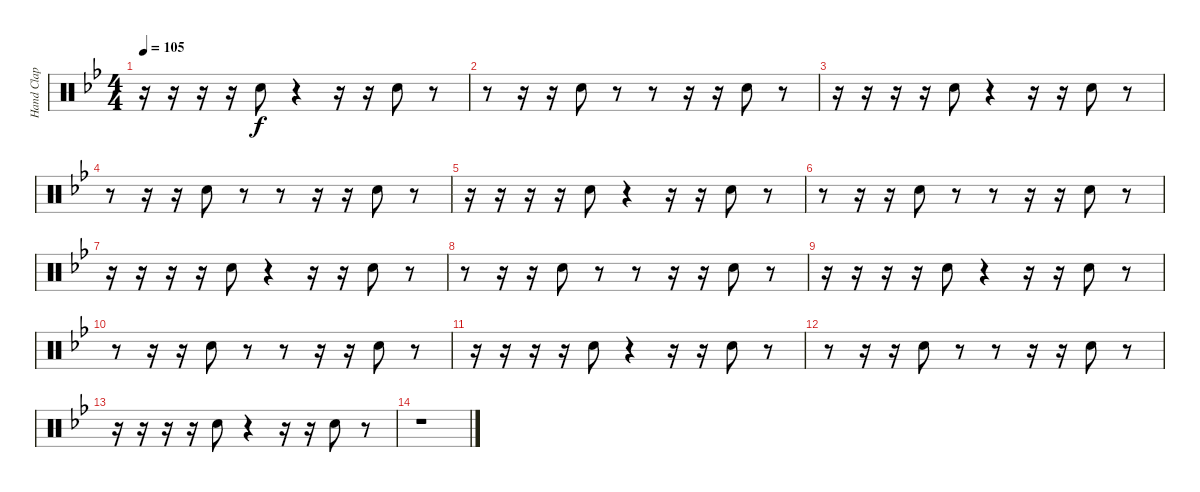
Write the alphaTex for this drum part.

\track ("Hand Clap" "Hand Clap") {instrument percussion}
\staff {score}
\articulation defaults
\ts (4 4)
\tempo 105
\clef neutral
\ks gminor
r.16{dy f} r.16 r.16 r.16 "Hand Clap (hit)".8 r.4 r.16 r.16 "Hand Clap (hit)".8 r.8 |
r.8 r.16 r.16 "Hand Clap (hit)".8 r.8 r.8 r.16 r.16 "Hand Clap (hit)".8 r.8 |
r.16 r.16 r.16 r.16 "Hand Clap (hit)".8 r.4 r.16 r.16 "Hand Clap (hit)".8 r.8 |
r.8 r.16 r.16 "Hand Clap (hit)".8 r.8 r.8 r.16 r.16 "Hand Clap (hit)".8 r.8 |
r.16 r.16 r.16 r.16 "Hand Clap (hit)".8 r.4 r.16 r.16 "Hand Clap (hit)".8 r.8 |
r.8 r.16 r.16 "Hand Clap (hit)".8 r.8 r.8 r.16 r.16 "Hand Clap (hit)".8 r.8 |
r.16 r.16 r.16 r.16 "Hand Clap (hit)".8 r.4 r.16 r.16 "Hand Clap (hit)".8 r.8 |
r.8 r.16 r.16 "Hand Clap (hit)".8 r.8 r.8 r.16 r.16 "Hand Clap (hit)".8 r.8 |
r.16 r.16 r.16 r.16 "Hand Clap (hit)".8 r.4 r.16 r.16 "Hand Clap (hit)".8 r.8 |
r.8 r.16 r.16 "Hand Clap (hit)".8 r.8 r.8 r.16 r.16 "Hand Clap (hit)".8 r.8 |
r.16 r.16 r.16 r.16 "Hand Clap (hit)".8 r.4 r.16 r.16 "Hand Clap (hit)".8 r.8 |
r.8 r.16 r.16 "Hand Clap (hit)".8 r.8 r.8 r.16 r.16 "Hand Clap (hit)".8 r.8 |
r.16 r.16 r.16 r.16 "Hand Clap (hit)".8 r.4 r.16 r.16 "Hand Clap (hit)".8 r.8 |
r.1
